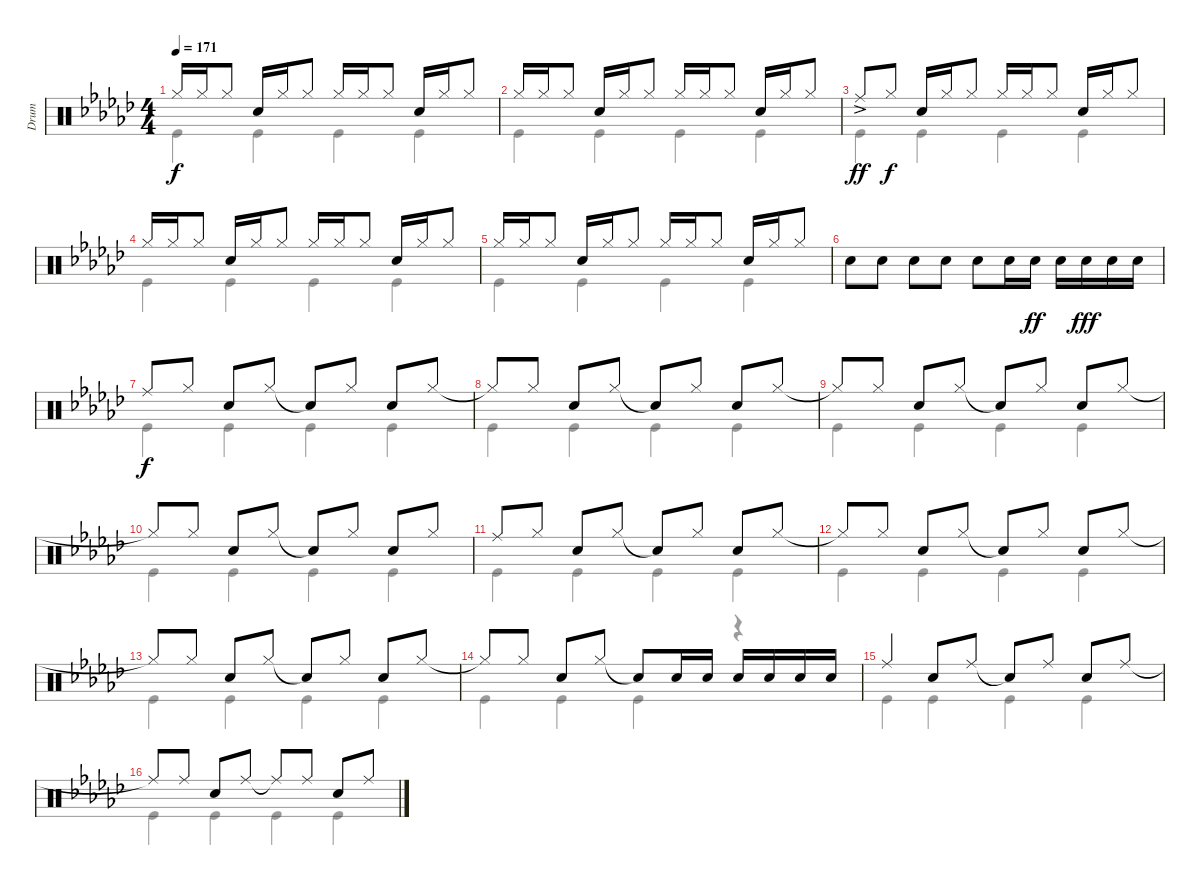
\track ("Drum" "Drum") {instrument percussion}
\staff {score}
\articulation defaults
\voice
\ts (4 4)
\tempo 171
\clef neutral
\ks gb "Hi-Hat (closed)".16{dy f} "Hi-Hat (closed)".16 "Hi-Hat (closed)".8 "Snare (hit) 2".16 "Hi-Hat (closed)".16 "Hi-Hat (closed)".8 "Hi-Hat (closed)".16 "Hi-Hat (closed)".16 "Hi-Hat (closed)".8 "Snare (hit) 2".16 "Hi-Hat (closed)".16 "Hi-Hat (closed)".8
|
"Hi-Hat (closed)".16 "Hi-Hat (closed)".16 "Hi-Hat (closed)".8 "Snare (hit) 2".16 "Hi-Hat (closed)".16 "Hi-Hat (closed)".8 "Hi-Hat (closed)".16 "Hi-Hat (closed)".16 "Hi-Hat (closed)".8 "Snare (hit) 2".16 "Hi-Hat (closed)".16 "Hi-Hat (closed)".8 |
"Ride (middle)"{ac}.8{dy ff} "Hi-Hat (closed)".8{dy f} "Snare (hit) 2".16 "Hi-Hat (closed)".16 "Hi-Hat (closed)".8 "Hi-Hat (closed)".16 "Hi-Hat (closed)".16 "Hi-Hat (closed)".8 "Snare (hit) 2".16 "Hi-Hat (closed)".16 "Hi-Hat (closed)".8 |
"Hi-Hat (closed)".16 "Hi-Hat (closed)".16 "Hi-Hat (closed)".8 "Snare (hit) 2".16 "Hi-Hat (closed)".16 "Hi-Hat (closed)".8 "Hi-Hat (closed)".16 "Hi-Hat (closed)".16 "Hi-Hat (closed)".8 "Snare (hit) 2".16 "Hi-Hat (closed)".16 "Hi-Hat (closed)".8 |
"Hi-Hat (closed)".16 "Hi-Hat (closed)".16 "Hi-Hat (closed)".8 "Snare (hit) 2".16 "Hi-Hat (closed)".16 "Hi-Hat (closed)".8 "Hi-Hat (closed)".16 "Hi-Hat (closed)".16 "Hi-Hat (closed)".8 "Snare (hit) 2".16 "Hi-Hat (closed)".16 "Hi-Hat (closed)".8 |
"Snare (hit) 2".8 "Snare (hit) 2".8 "Snare (hit) 2".8 "Snare (hit) 2".8 "Snare (hit) 2".8 "Snare (hit) 2".16 "Snare (hit) 2".16{dy ff} "Snare (hit) 2".16 "Snare (hit) 2".16{dy fff} "Snare (hit) 2".16 "Snare (hit) 2".16 |
"Ride (middle)".8{dy f} "Hi-Hat (closed)".8 "Snare (hit) 2".8 "Hi-Hat (closed)".8 "Snare (hit)"{t}.8 "Hi-Hat (closed)".8 "Snare (hit) 2".8 "Hi-Hat (closed)".8 |
"Hi-Hat (closed)"{t}.8 "Hi-Hat (closed)".8 "Snare (hit) 2".8 "Hi-Hat (closed)".8 "Snare (hit)"{t}.8 "Hi-Hat (closed)".8 "Snare (hit) 2".8 "Hi-Hat (closed)".8 |
"Hi-Hat (closed)"{t}.8 "Hi-Hat (closed)".8 "Snare (hit) 2".8 "Hi-Hat (closed)".8 "Snare (hit)"{t}.8 "Hi-Hat (closed)".8 "Snare (hit) 2".8 "Hi-Hat (closed)".8 |
"Hi-Hat (closed)"{t}.8 "Hi-Hat (closed)".8 "Snare (hit) 2".8 "Hi-Hat (closed)".8 "Snare (hit)"{t}.8 "Hi-Hat (closed)".8 "Snare (hit) 2".8 "Hi-Hat (closed)".8 |
"Ride (middle)".8 "Hi-Hat (closed)".8 "Snare (hit) 2".8 "Hi-Hat (closed)".8 "Snare (hit)"{t}.8 "Hi-Hat (closed)".8 "Snare (hit) 2".8 "Hi-Hat (closed)".8 |
"Hi-Hat (closed)"{t}.8 "Hi-Hat (closed)".8 "Snare (hit) 2".8 "Hi-Hat (closed)".8 "Snare (hit)"{t}.8 "Hi-Hat (closed)".8 "Snare (hit) 2".8 "Hi-Hat (closed)".8 |
"Hi-Hat (closed)"{t}.8 "Hi-Hat (closed)".8 "Snare (hit) 2".8 "Hi-Hat (closed)".8 "Snare (hit)"{t}.8 "Hi-Hat (closed)".8 "Snare (hit) 2".8 "Hi-Hat (closed)".8 |
"Hi-Hat (closed)"{t}.8 "Hi-Hat (closed)".8 "Snare (hit) 2".8 "Hi-Hat (closed)".8 "Snare (hit)"{t}.8 "Snare (hit) 2".16 "Snare (hit) 2".16 "Snare (hit) 2".16 "Snare (hit) 2".16 "Snare (hit) 2".16 "Snare (hit) 2".16 |
"Ride (middle)".4 "Snare (hit) 2".8 "Ride (middle)".8 "Snare (hit)"{t}.8 "Ride (middle)".8 "Snare (hit) 2".8 "Ride (middle)".8 |
"Ride (middle)"{t}.8 "Ride (middle)".8 "Snare (hit) 2".8 "Ride (middle)".8 "Ride (middle)"{t}.8 "Ride (middle)".8 "Snare (hit) 2".8 "Ride (middle)".8
\voice
\clef neutral
\ottava regular
\simile none
\ks gb "Kick (hit)".4{dy f} "Kick (hit)".4 "Kick (hit)".4 "Kick (hit)".4
|
"Kick (hit)".4 "Kick (hit)".4 "Kick (hit)".4 "Kick (hit)".4 |
"Kick (hit)".4 "Kick (hit)".4 "Kick (hit)".4 "Kick (hit)".4 |
"Kick (hit)".4 "Kick (hit)".4 "Kick (hit)".4 "Kick (hit)".4 |
"Kick (hit)".4 "Kick (hit)".4 "Kick (hit)".4 "Kick (hit)".4 |
|
"Kick (hit)".4 "Kick (hit)".4 "Kick (hit)".4 "Kick (hit)".4 |
"Kick (hit)".4 "Kick (hit)".4 "Kick (hit)".4 "Kick (hit)".4 |
"Kick (hit)".4 "Kick (hit)".4 "Kick (hit)".4 "Kick (hit)".4 |
"Kick (hit)".4 "Kick (hit)".4 "Kick (hit)".4 "Kick (hit)".4 |
"Kick (hit)".4 "Kick (hit)".4 "Kick (hit)".4 "Kick (hit)".4 |
"Kick (hit)".4 "Kick (hit)".4 "Kick (hit)".4 "Kick (hit)".4 |
"Kick (hit)".4 "Kick (hit)".4 "Kick (hit)".4 "Kick (hit)".4 |
"Kick (hit)".4 "Kick (hit)".4 "Kick (hit)".4 r.4 |
"Kick (hit)".4 "Kick (hit)".4 "Kick (hit)".4 "Kick (hit)".4 |
"Kick (hit)".4 "Kick (hit)".4 "Kick (hit)".4 "Kick (hit)".4
